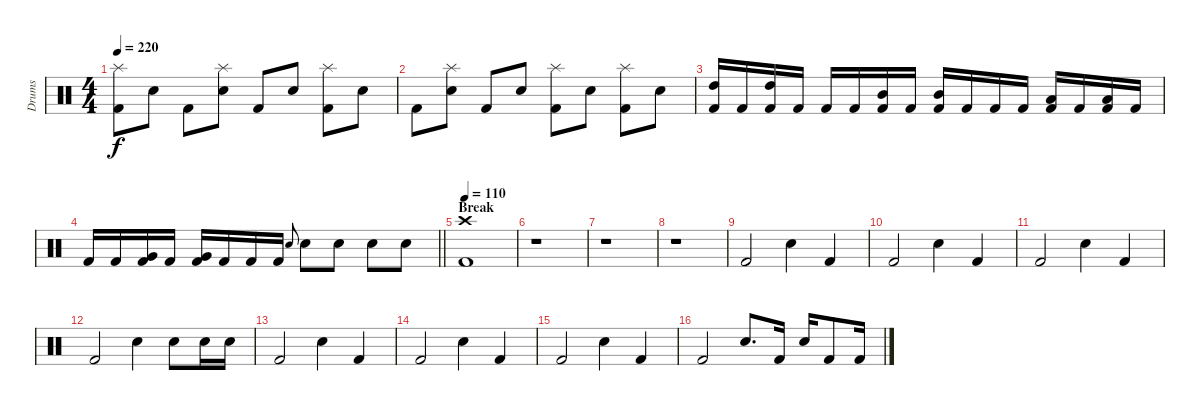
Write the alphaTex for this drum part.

\track ("Drums" "Drums") {instrument percussion}
\staff {score}
\articulation defaults
\ts (4 4)
\tempo 220
\clef neutral
\ks c
("Splash (hit)" "Kick (hit) 2").8{dy f} "Snare (hit) 2".8 "Kick (hit) 2".8 ("Splash (hit)" "Snare (hit) 2").8 "Kick (hit) 2".8 "Snare (hit) 2".8 ("Splash (hit)" "Kick (hit) 2").8 "Snare (hit) 2".8 |
"Kick (hit) 2".8 ("Splash (hit)" "Snare (hit) 2").8 "Kick (hit) 2".8 "Snare (hit) 2".8 ("Splash (hit)" "Kick (hit) 2").8 "Snare (hit) 2".8 ("Splash (hit)" "Kick (hit) 2").8 "Snare (hit) 2".8 |
("High Tom (hit)" "Kick (hit) 2").16 "Kick (hit) 2".16 ("High Tom (hit)" "Kick (hit) 2").16 "Kick (hit) 2".16 "Kick (hit) 2".16 "Kick (hit) 2".16 ("Mid Tom (hit)" "Kick (hit) 2").16 "Kick (hit) 2".16 ("Mid Tom (hit)" "Kick (hit) 2").16 "Kick (hit) 2".16 "Kick (hit) 2".16 "Kick (hit) 2".16 ("Low Tom (hit)" "Kick (hit) 2").16 "Kick (hit) 2".16 ("Low Tom (hit)" "Kick (hit) 2").16 "Kick (hit) 2".16 |
\barLineRight lightlight "Kick (hit) 2".16 "Kick (hit) 2".16
("Very Low Tom (hit)" "Kick (hit) 2").16 "Kick (hit) 2".16 ("Very Low Tom (hit)" "Kick (hit) 2").16 "Kick (hit) 2".16 "Kick (hit) 2".16 "Kick (hit) 2".16 "Snare (hit) 2"{h}.8{gr onbeat} "Snare (hit) 2".8 "Snare (hit) 2".8 "Snare (hit) 2".8 "Snare (hit) 2".8 |
\section ("" "Break")
\tempo 110
("Crash high (hit)" "Kick (hit) 2").1 |
r.1 |
r.1 |
r.1 |
"Kick (hit) 2".2 "Snare (hit) 2".4 "Kick (hit) 2".4 |
"Kick (hit) 2".2 "Snare (hit) 2".4 "Kick (hit) 2".4 |
"Kick (hit) 2".2 "Snare (hit) 2".4 "Kick (hit) 2".4 |
"Kick (hit) 2".2 "Snare (hit) 2".4 "Snare (hit) 2".8 "Snare (hit) 2".16 "Snare (hit) 2".16 |
"Kick (hit) 2".2 "Snare (hit) 2".4 "Kick (hit) 2".4 |
"Kick (hit) 2".2 "Snare (hit) 2".4 "Kick (hit) 2".4 |
"Kick (hit) 2".2 "Snare (hit) 2".4 "Kick (hit) 2".4 |
"Kick (hit) 2".2 "Snare (hit) 2".8{d} "Kick (hit) 2".16 "Snare (hit) 2".16 "Kick (hit) 2".8 "Kick (hit) 2".16
